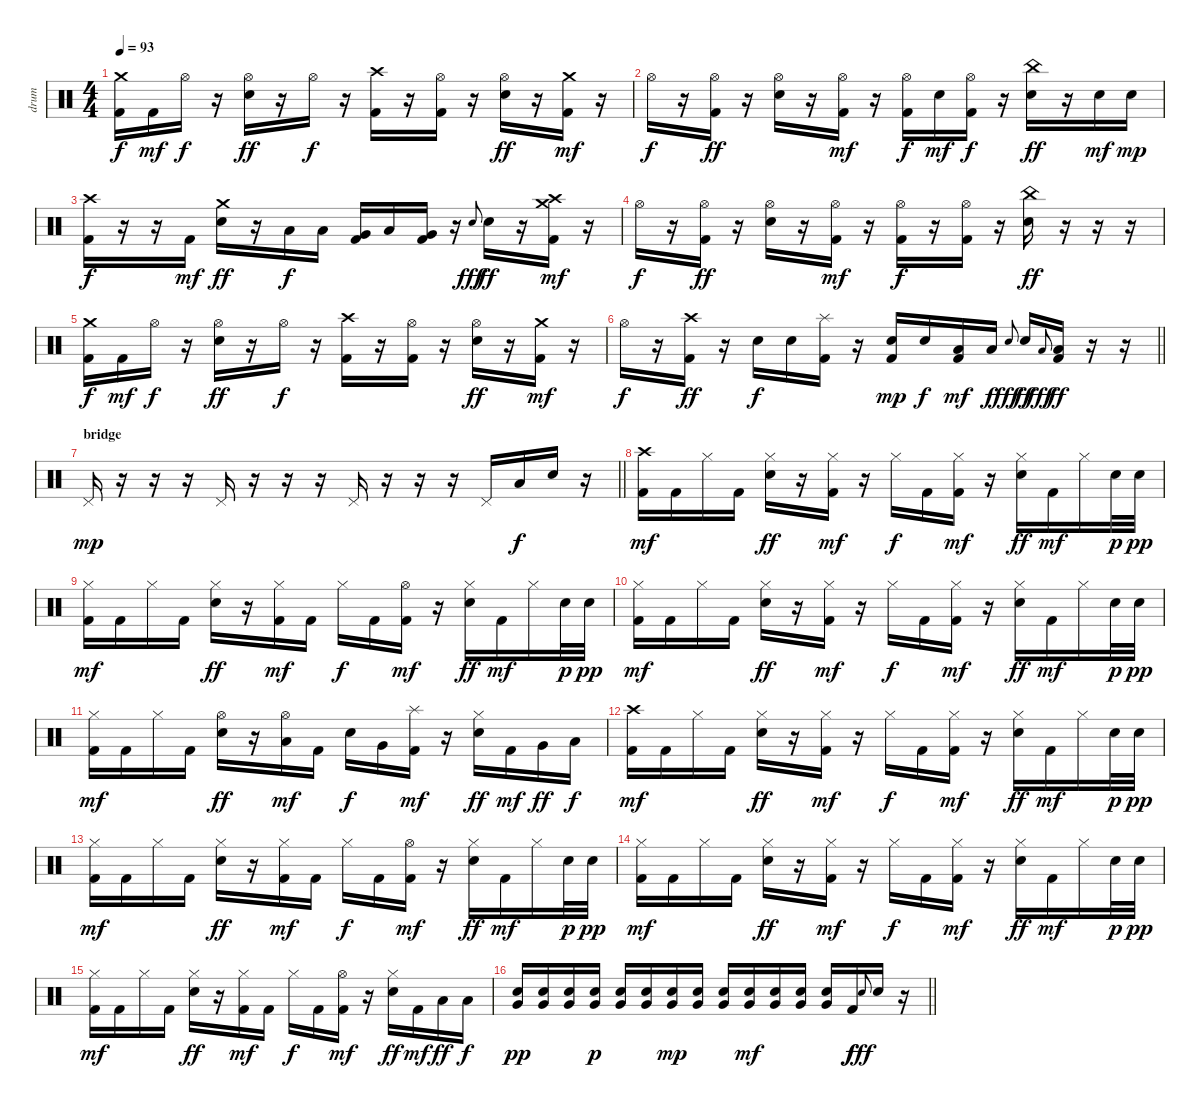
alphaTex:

\track ("drum" "drum") {instrument percussion}
\staff {score}
\articulation defaults
\ts (4 4)
\tempo 93
\clef neutral
\ks c
("Crash medium (hit)" "Kick (hit) 2").16{dy f} "Kick (hit) 2".16{dy mf} "Hi-Hat (open)".16{dy f} r.16 ("Hi-Hat (open)" "Electric Snare (hit)").16{dy ff} r.16 "Hi-Hat (open)".16{dy f} r.16 ("Crash high (hit)" "Kick (hit) 2").16 r.16 ("Hi-Hat (open)" "Kick (hit) 2").16 r.16 ("Hi-Hat (open)" "Electric Snare (hit)").16{dy ff} r.16 ("Crash medium (hit)" "Kick (hit) 2").16{dy mf} r.16 |
"Hi-Hat (open)".16{dy f} r.16 ("Hi-Hat (open)" "Kick (hit) 2").16{dy ff} r.16 ("Hi-Hat (open)" "Electric Snare (hit)").16 r.16 ("Hi-Hat (open)" "Kick (hit) 2").16{dy mf} r.16 ("Hi-Hat (open)" "Kick (hit) 2").16{dy f} "Electric Snare (hit)".16{dy mf} ("Hi-Hat (open)" "Kick (hit) 2").16{dy f} r.16 ("China (hit)" "Electric Snare (hit)").16{dy ff} r.16 "Electric Snare (hit)".16{dy mf} "Electric Snare (hit)".16{dy mp} |
("Crash high (hit)" "Kick (hit) 2").16{dy f} r.16 r.16 "Kick (hit) 2".16{dy mf} ("Crash medium (hit)" "Electric Snare (hit)").16{dy ff} r.16 "Low Tom (hit)".16{dy f} "Low Tom (hit)".16 ("Very Low Tom (hit)" "Kick (hit) 2").16 "Low Tom (hit)".16 ("Very Low Tom (hit)" "Kick (hit) 2").16 r.16 "Electric Snare (hit)".8{gr onbeat dy fff} "Electric Snare (hit)".16{dy ff} r.16 ("Crash medium (hit)" "Crash high (hit)" "Kick (hit) 2").16{dy mf} r.16 |
"Hi-Hat (open)".16{dy f} r.16 ("Hi-Hat (open)" "Kick (hit) 2").16{dy ff} r.16 ("Hi-Hat (open)" "Electric Snare (hit)").16 r.16 ("Hi-Hat (open)" "Kick (hit) 2").16{dy mf} r.16 ("Hi-Hat (open)" "Kick (hit) 2").16{dy f} r.16 ("Hi-Hat (open)" "Kick (hit) 2").16 r.16 ("China (hit)" "Electric Snare (hit)").16{dy ff} r.16 r.16 r.16 |
("Crash medium (hit)" "Kick (hit) 2").16{dy f} "Kick (hit) 2".16{dy mf} "Hi-Hat (open)".16{dy f} r.16 ("Hi-Hat (open)" "Electric Snare (hit)").16{dy ff} r.16 "Hi-Hat (open)".16{dy f} r.16 ("Crash high (hit)" "Kick (hit) 2").16 r.16 ("Hi-Hat (open)" "Kick (hit) 2").16 r.16 ("Hi-Hat (open)" "Electric Snare (hit)").16{dy ff} r.16 ("Crash medium (hit)" "Kick (hit) 2").16{dy mf} r.16 |
\barLineRight lightlight "Hi-Hat (open)".16{dy f}
r.16 ("Crash high (hit)" "Kick (hit) 2").16{dy ff} r.16 "Electric Snare (hit)".16{dy f} "Electric Snare (hit)".16 ("Splash (hit)" "Kick (hit) 2").16 r.16 ("Electric Snare (hit)" "Kick (hit) 2").16{dy mp} "Electric Snare (hit)".16{dy f} ("Low Tom (hit)" "Kick (hit) 2").16{dy mf} "Low Tom (hit)".16{dy f} "Electric Snare (hit)".8{gr onbeat dy fff} "Electric Snare (hit)".16{dy ff} "Low Tom (hit)".8{gr onbeat dy fff} ("Low Tom (hit)" "Kick (hit) 2").16{dy ff} r.16 r.16 |
\section ("" "bridge")
\barLineRight lightlight "Pedal Hi-Hat (hit)".16{dy mp}
r.16 r.16 r.16 "Pedal Hi-Hat (hit)".16 r.16 r.16 r.16 "Pedal Hi-Hat (hit)".16 r.16 r.16 r.16 "Pedal Hi-Hat (hit)".16 "Low Tom (hit)".16{dy f} "Electric Snare (hit)".16 r.16 |
("Crash high (hit)" "Kick (hit) 2").16{dy mf} "Kick (hit) 2".16 "Hi-Hat (closed)".16 "Kick (hit) 2".16 ("Hi-Hat (closed)" "Electric Snare (hit)").16{dy ff} r.16 ("Hi-Hat (closed)" "Kick (hit) 2").16{dy mf} r.16 "Hi-Hat (closed)".16{dy f} "Kick (hit) 2".16 ("Hi-Hat (closed)" "Kick (hit) 2").16{dy mf} r.16 ("Hi-Hat (closed)" "Electric Snare (hit)").16{dy ff} "Kick (hit) 2".16{dy mf} "Hi-Hat (closed)".16 "Electric Snare (hit)".32{dy p} "Electric Snare (hit)".32{dy pp} |
("Hi-Hat (closed)" "Kick (hit) 2").16{dy mf} "Kick (hit) 2".16 "Hi-Hat (closed)".16 "Kick (hit) 2".16 ("Hi-Hat (closed)" "Electric Snare (hit)").16{dy ff} r.16 ("Hi-Hat (closed)" "Kick (hit) 2").16{dy mf} "Kick (hit) 2".16 "Hi-Hat (closed)".16{dy f} "Kick (hit) 2".16 ("Hi-Hat (open)" "Kick (hit) 2").16{dy mf} r.16 ("Hi-Hat (closed)" "Electric Snare (hit)").16{dy ff} "Kick (hit) 2".16{dy mf} "Hi-Hat (closed)".16 "Electric Snare (hit)".32{dy p} "Electric Snare (hit)".32{dy pp} |
("Hi-Hat (closed)" "Kick (hit) 2").16{dy mf} "Kick (hit) 2".16 "Hi-Hat (closed)".16 "Kick (hit) 2".16 ("Hi-Hat (closed)" "Electric Snare (hit)").16{dy ff} r.16 ("Hi-Hat (closed)" "Kick (hit) 2").16{dy mf} r.16 "Hi-Hat (closed)".16{dy f} "Kick (hit) 2".16 ("Hi-Hat (closed)" "Kick (hit) 2").16{dy mf} r.16 ("Hi-Hat (closed)" "Electric Snare (hit)").16{dy ff} "Kick (hit) 2".16{dy mf} "Hi-Hat (closed)".16 "Electric Snare (hit)".32{dy p} "Electric Snare (hit)".32{dy pp} |
("Hi-Hat (closed)" "Kick (hit) 2").16{dy mf} "Kick (hit) 2".16 "Hi-Hat (closed)".16 "Kick (hit) 2".16 ("Hi-Hat (open)" "Electric Snare (hit)").16{dy ff} r.16 ("Low Tom (hit)" "Hi-Hat (open)").16{dy mf} "Kick (hit) 2".16 "Electric Snare (hit)".16{dy f} "Very Low Tom (hit)".16 ("Splash (hit)" "Kick (hit) 2").16{dy mf} r.16 ("Hi-Hat (closed)" "Electric Snare (hit)").16{dy ff} "Kick (hit) 2".16{dy mf} "Very Low Tom (hit)".16{dy ff} "Low Tom (hit)".16{dy f} |
("Crash high (hit)" "Kick (hit) 2").16{dy mf} "Kick (hit) 2".16 "Hi-Hat (closed)".16 "Kick (hit) 2".16 ("Hi-Hat (closed)" "Electric Snare (hit)").16{dy ff} r.16 ("Hi-Hat (closed)" "Kick (hit) 2").16{dy mf} r.16 "Hi-Hat (closed)".16{dy f} "Kick (hit) 2".16 ("Hi-Hat (closed)" "Kick (hit) 2").16{dy mf} r.16 ("Hi-Hat (closed)" "Electric Snare (hit)").16{dy ff} "Kick (hit) 2".16{dy mf} "Hi-Hat (closed)".16 "Electric Snare (hit)".32{dy p} "Electric Snare (hit)".32{dy pp} |
("Hi-Hat (closed)" "Kick (hit) 2").16{dy mf} "Kick (hit) 2".16 "Hi-Hat (closed)".16 "Kick (hit) 2".16 ("Hi-Hat (closed)" "Electric Snare (hit)").16{dy ff} r.16 ("Hi-Hat (closed)" "Kick (hit) 2").16{dy mf} "Kick (hit) 2".16 "Hi-Hat (closed)".16{dy f} "Kick (hit) 2".16 ("Hi-Hat (open)" "Kick (hit) 2").16{dy mf} r.16 ("Hi-Hat (closed)" "Electric Snare (hit)").16{dy ff} "Kick (hit) 2".16{dy mf} "Hi-Hat (closed)".16 "Electric Snare (hit)".32{dy p} "Electric Snare (hit)".32{dy pp} |
("Hi-Hat (closed)" "Kick (hit) 2").16{dy mf} "Kick (hit) 2".16 "Hi-Hat (closed)".16 "Kick (hit) 2".16 ("Hi-Hat (closed)" "Electric Snare (hit)").16{dy ff} r.16 ("Hi-Hat (closed)" "Kick (hit) 2").16{dy mf} r.16 "Hi-Hat (closed)".16{dy f} "Kick (hit) 2".16 ("Hi-Hat (closed)" "Kick (hit) 2").16{dy mf} r.16 ("Hi-Hat (closed)" "Electric Snare (hit)").16{dy ff} "Kick (hit) 2".16{dy mf} "Hi-Hat (closed)".16 "Electric Snare (hit)".32{dy p} "Electric Snare (hit)".32{dy pp} |
("Hi-Hat (closed)" "Kick (hit) 2").16{dy mf} "Kick (hit) 2".16 "Hi-Hat (closed)".16 "Kick (hit) 2".16 ("Hi-Hat (closed)" "Electric Snare (hit)").16{dy ff} r.16 ("Hi-Hat (closed)" "Kick (hit) 2").16{dy mf} "Kick (hit) 2".16 "Hi-Hat (closed)".16{dy f} "Kick (hit) 2".16 ("Hi-Hat (open)" "Kick (hit) 2").16{dy mf} r.16 ("Hi-Hat (closed)" "Electric Snare (hit)").16{dy ff} "Kick (hit) 2".16{dy mf} "Low Tom (hit)".16{dy ff} "Low Tom (hit)".16{dy f} |
\barLineRight lightlight
("Very Low Tom (hit)" "Electric Snare (hit)").16{dy pp} ("Very Low Tom (hit)" "Electric Snare (hit)").16 ("Very Low Tom (hit)" "Electric Snare (hit)").16 ("Very Low Tom (hit)" "Electric Snare (hit)").16{dy p} ("Very Low Tom (hit)" "Electric Snare (hit)").16 ("Very Low Tom (hit)" "Electric Snare (hit)").16 ("Very Low Tom (hit)" "Electric Snare (hit)").16{dy mp} ("Very Low Tom (hit)" "Electric Snare (hit)").16 ("Very Low Tom (hit)" "Electric Snare (hit)").16 ("Very Low Tom (hit)" "Electric Snare (hit)").16{dy mf} ("Very Low Tom (hit)" "Electric Snare (hit)").16 ("Very Low Tom (hit)" "Electric Snare (hit)").16 ("Very Low Tom (hit)" "Electric Snare (hit)").16 "Kick (hit) 2".16{dy f} "Electric Snare (hit)".8{gr onbeat dy fff} "Electric Snare (hit)".16 r.16
